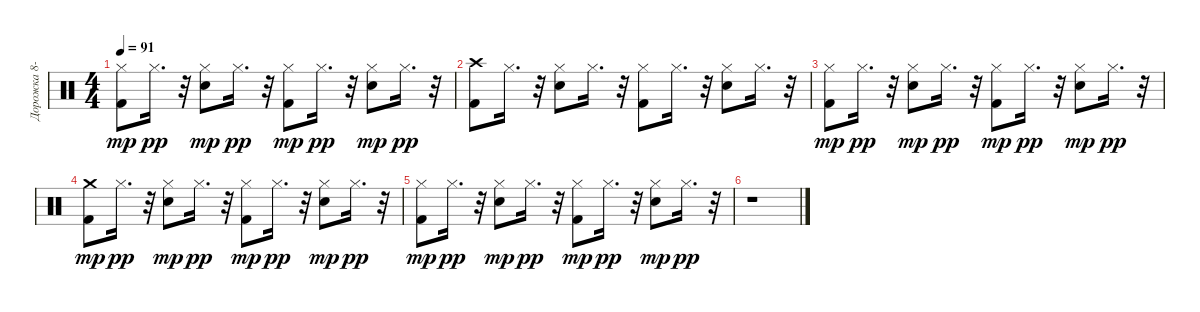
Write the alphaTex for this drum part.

\track ("Дорожка 8-9-10-11" "Дорожка 8-") {instrument percussion}
\staff {score}
\articulation defaults
\ts (4 4)
\tempo 91
\clef neutral
\ks c
("Hi-Hat (closed)" "Kick (hit) 2").8{dy mp volume 4} "Hi-Hat (closed)".16{d dy pp volume 4} r.32 ("Hi-Hat (closed)" "Electric Snare (hit)").8{dy mp volume 4} "Hi-Hat (closed)".16{d dy pp volume 4} r.32 ("Hi-Hat (closed)" "Kick (hit) 2").8{dy mp volume 4} "Hi-Hat (closed)".16{d dy pp} r.32 ("Hi-Hat (closed)" "Electric Snare (hit)").8{dy mp volume 4} "Hi-Hat (closed)".16{d dy pp volume 4} r.32 |
("Kick (hit) 2" "Crash high (hit)").8{volume 4} "Hi-Hat (closed)".16{d volume 3} r.32 ("Electric Snare (hit)" "Hi-Hat (closed)").8{volume 3} "Hi-Hat (closed)".16{d volume 3} r.32 ("Kick (hit) 2" "Hi-Hat (closed)").8 "Hi-Hat (closed)".16{d volume 3} r.32 ("Electric Snare (hit)" "Hi-Hat (closed)").8{volume 3} "Hi-Hat (closed)".16{d volume 3} r.32 |
("Hi-Hat (closed)" "Kick (hit) 2").8{dy mp volume 3} "Hi-Hat (closed)".16{d dy pp volume 2} r.32 ("Hi-Hat (closed)" "Electric Snare (hit)").8{dy mp volume 2} "Hi-Hat (closed)".16{d dy pp} r.32 ("Hi-Hat (closed)" "Kick (hit) 2").8{dy mp volume 2} "Hi-Hat (closed)".16{d dy pp volume 2} r.32 ("Hi-Hat (closed)" "Electric Snare (hit)").8{dy mp volume 2} "Hi-Hat (closed)".16{d dy pp volume 2} r.32 |
("Crash medium (hit)" "Kick (hit) 2").8{dy mp volume 2} "Hi-Hat (closed)".16{d dy pp volume 2} r.32 ("Hi-Hat (closed)" "Electric Snare (hit)").8{dy mp} "Hi-Hat (closed)".16{d dy pp volume 2} r.32 ("Hi-Hat (closed)" "Kick (hit) 2").8{dy mp volume 1} "Hi-Hat (closed)".16{d dy pp volume 1} r.32 ("Hi-Hat (closed)" "Electric Snare (hit)").8{dy mp volume 1} "Hi-Hat (closed)".16{d dy pp volume 1} r.32 |
("Hi-Hat (closed)" "Kick (hit) 2").8{dy mp volume 1} "Hi-Hat (closed)".16{d dy pp} r.32 ("Hi-Hat (closed)" "Electric Snare (hit)").8{dy mp volume 1} "Hi-Hat (closed)".16{d dy pp volume 1} r.32 ("Hi-Hat (closed)" "Kick (hit) 2").8{dy mp volume 0} "Hi-Hat (closed)".16{d dy pp volume 0} r.32 ("Hi-Hat (closed)" "Electric Snare (hit)").8{dy mp volume 0} "Hi-Hat (closed)".16{d dy pp volume 0} r.32 |
r.1
